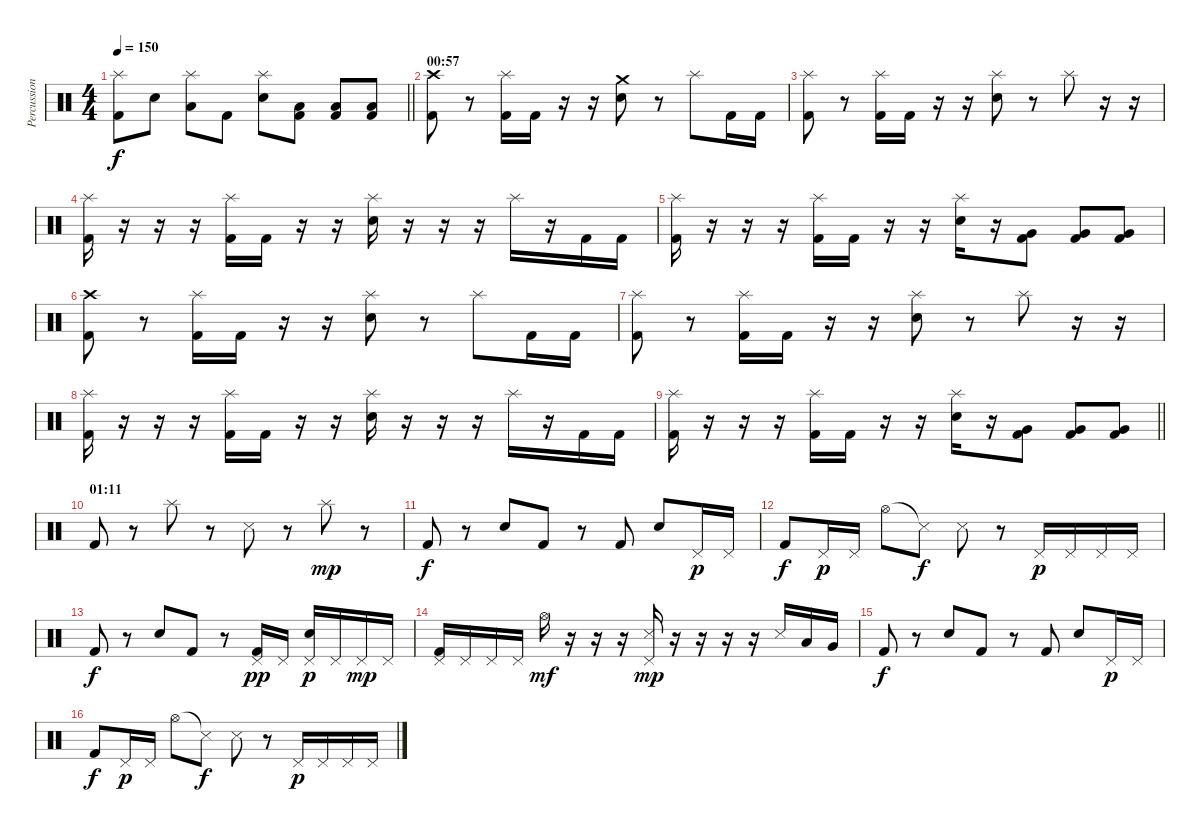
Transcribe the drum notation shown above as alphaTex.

\track ("Percussion" "Percussion") {instrument percussion}
\staff {score}
\articulation defaults
\ts (4 4)
\tempo 150
\clef neutral
\barLineRight lightlight
\ks c
("Splash (hit)" "Kick (hit) 2").8{dy f} "Electric Snare (hit)".8 ("Splash (hit)" "Low Tom (hit)").8 "Kick (hit) 2".8 ("Splash (hit)" "Electric Snare (hit)").8 ("Low Floor Tom (hit)" "Kick (hit) 2").8 ("Low Floor Tom (hit)" "Kick (hit) 2").8 ("Low Floor Tom (hit)" "Kick (hit) 2").8 |
\section ("" "00:57")
("Crash high (hit)" "Kick (hit) 2").8 r.8 ("Splash (hit)" "Kick (hit) 2").16 "Kick (hit) 2".16 r.16 r.16 ("Crash medium (hit)" "Electric Snare (hit)").8 r.8 "Splash (hit)".8 "Kick (hit) 2".16 "Kick (hit) 2".16 |
("Splash (hit)" "Kick (hit) 2").8 r.8 ("Splash (hit)" "Kick (hit) 2").16 "Kick (hit) 2".16 r.16 r.16 ("Splash (hit)" "Electric Snare (hit)").8 r.8 "Splash (hit)".8 r.16 r.16 |
("Splash (hit)" "Kick (hit) 2").16 r.16 r.16 r.16 ("Splash (hit)" "Kick (hit) 2").16 "Kick (hit) 2".16 r.16 r.16 ("Splash (hit)" "Electric Snare (hit)").16 r.16 r.16 r.16 "Splash (hit)".16 r.16 "Kick (hit) 2".16 "Kick (hit) 2".16 |
("Splash (hit)" "Kick (hit) 2").16 r.16 r.16 r.16 ("Splash (hit)" "Kick (hit) 2").16 "Kick (hit) 2".16 r.16 r.16 ("Splash (hit)" "Electric Snare (hit)").16 r.16 ("Very Low Tom (hit)" "Kick (hit) 2").8 ("Very Low Tom (hit)" "Kick (hit) 2").8 ("Very Low Tom (hit)" "Kick (hit) 2").8 |
("Crash high (hit)" "Kick (hit) 2").8 r.8 ("Splash (hit)" "Kick (hit) 2").16 "Kick (hit) 2".16 r.16 r.16 ("Splash (hit)" "Electric Snare (hit)").8 r.8 "Splash (hit)".8 "Kick (hit) 2".16 "Kick (hit) 2".16 |
("Splash (hit)" "Kick (hit) 2").8 r.8 ("Splash (hit)" "Kick (hit) 2").16 "Kick (hit) 2".16 r.16 r.16 ("Splash (hit)" "Electric Snare (hit)").8 r.8 "Splash (hit)".8 r.16 r.16 |
("Splash (hit)" "Kick (hit) 2").16 r.16 r.16 r.16 ("Splash (hit)" "Kick (hit) 2").16 "Kick (hit) 2".16 r.16 r.16 ("Splash (hit)" "Electric Snare (hit)").16 r.16 r.16 r.16 "Splash (hit)".16 r.16 "Kick (hit) 2".16 "Kick (hit) 2".16 |
\barLineRight lightlight
("Splash (hit)" "Kick (hit) 2").16 r.16 r.16 r.16 ("Splash (hit)" "Kick (hit) 2").16 "Kick (hit) 2".16 r.16 r.16 ("Splash (hit)" "Electric Snare (hit)").16 r.16 ("Very Low Tom (hit)" "Kick (hit) 2").8 ("Very Low Tom (hit)" "Kick (hit) 2").8 ("Very Low Tom (hit)" "Kick (hit) 2").8 |
\section ("" "01:11")
"Kick (hit) 2".8 r.8 "Splash (hit)".8 r.8 "Snare (side stick) 3".8 r.8 "Splash (hit)".8{dy mp} r.8 |
"Kick (hit) 2".8{dy f} r.8 "Electric Snare (hit)".8 "Kick (hit) 2".8 r.8 "Kick (hit) 2".8 "Electric Snare (hit)".8 "Pedal Hi-Hat (hit)".16{dy p} "Pedal Hi-Hat (hit)".16 |
"Kick (hit) 2".8{dy f} "Pedal Hi-Hat (hit)".16{dy p} "Pedal Hi-Hat (hit)".16 "Hi-Hat (open)".8 "Snare (side stick) 3"{t}.8{dy f} "Snare (side stick) 3".8 r.8 "Pedal Hi-Hat (hit)".16{dy p} "Pedal Hi-Hat (hit)".16 "Pedal Hi-Hat (hit)".16 "Pedal Hi-Hat (hit)".16 |
"Kick (hit) 2".8{dy f} r.8 "Electric Snare (hit)".8 "Kick (hit) 2".8 r.8 ("Pedal Hi-Hat (hit)" "Kick (hit) 2").16{dy pp} "Pedal Hi-Hat (hit)".16 ("Pedal Hi-Hat (hit)" "Electric Snare (hit)").16{dy p} "Pedal Hi-Hat (hit)".16 "Pedal Hi-Hat (hit)".16{dy mp} "Pedal Hi-Hat (hit)".16 |
("Pedal Hi-Hat (hit)" "Kick (hit) 2").16 "Pedal Hi-Hat (hit)".16 "Pedal Hi-Hat (hit)".16 "Pedal Hi-Hat (hit)".16 "Hi-Hat (open)".16{dy mf} r.16 r.16 r.16 ("Pedal Hi-Hat (hit)" "Snare (side stick) 3").16{dy mp} r.16 r.16 r.16 r.16 "Snare (side stick) 3".16 "Low Tom (hit)".16 "Very Low Tom (hit)".16 |
"Kick (hit) 2".8{dy f} r.8 "Electric Snare (hit)".8 "Kick (hit) 2".8 r.8 "Kick (hit) 2".8 "Electric Snare (hit)".8 "Pedal Hi-Hat (hit)".16{dy p} "Pedal Hi-Hat (hit)".16 |
"Kick (hit) 2".8{dy f} "Pedal Hi-Hat (hit)".16{dy p} "Pedal Hi-Hat (hit)".16 "Hi-Hat (open)".8 "Snare (side stick) 3"{t}.8{dy f} "Snare (side stick) 3".8 r.8 "Pedal Hi-Hat (hit)".16{dy p} "Pedal Hi-Hat (hit)".16 "Pedal Hi-Hat (hit)".16 "Pedal Hi-Hat (hit)".16
